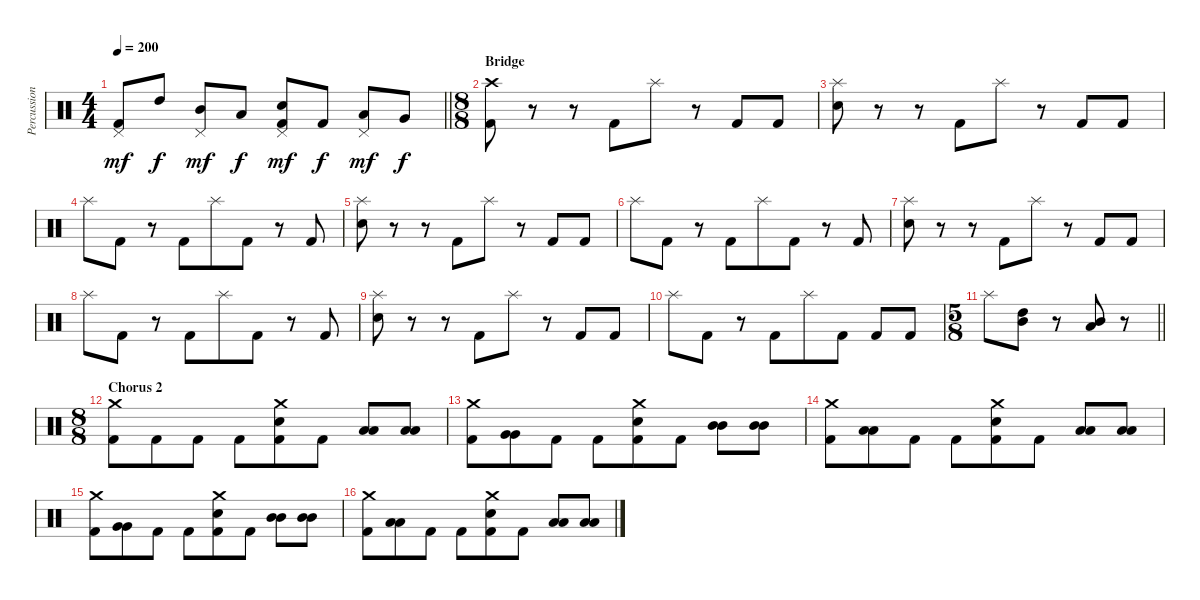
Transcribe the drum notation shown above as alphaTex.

\track ("Percussions" "Percussion") {instrument percussion}
\staff {score}
\articulation defaults
\ts (4 4)
\tempo 200
\clef neutral
\barLineRight lightlight
\ks c
("Pedal Hi-Hat (hit)" "Kick (hit) 2").8{dy mf} "High Tom (hit)".8{dy f} ("Pedal Hi-Hat (hit)" "Mid Tom (hit)").8{dy mf} "Low Tom (hit)".8{dy f} ("Pedal Hi-Hat (hit)" "Electric Snare (hit)" "Kick (hit) 2").8{dy mf} "Kick (hit) 2".8{dy f} ("Pedal Hi-Hat (hit)" "Low Tom (hit)").8{dy mf} "Very Low Tom (hit)".8{dy f} |
\ts (8 8)
\section ("" "Bridge")
("Crash high (hit)" "Kick (hit) 2").8 r.8 r.8 "Kick (hit) 2".8 "Splash (hit)".8 r.8 "Kick (hit) 2".8 "Kick (hit) 2".8 |
("Splash (hit)" "Electric Snare (hit)").8 r.8 r.8 "Kick (hit) 2".8 "Splash (hit)".8 r.8 "Kick (hit) 2".8 "Kick (hit) 2".8 |
"Splash (hit)".8 "Kick (hit) 2".8 r.8 "Kick (hit) 2".8 "Splash (hit)".8 "Kick (hit) 2".8 r.8 "Kick (hit) 2".8 |
("Splash (hit)" "Electric Snare (hit)").8 r.8 r.8 "Kick (hit) 2".8 "Splash (hit)".8 r.8 "Kick (hit) 2".8 "Kick (hit) 2".8 |
"Splash (hit)".8 "Kick (hit) 2".8 r.8 "Kick (hit) 2".8 "Splash (hit)".8 "Kick (hit) 2".8 r.8 "Kick (hit) 2".8 |
("Splash (hit)" "Electric Snare (hit)").8 r.8 r.8 "Kick (hit) 2".8 "Splash (hit)".8 r.8 "Kick (hit) 2".8 "Kick (hit) 2".8 |
"Splash (hit)".8 "Kick (hit) 2".8 r.8 "Kick (hit) 2".8 "Splash (hit)".8 "Kick (hit) 2".8 r.8 "Kick (hit) 2".8 |
("Splash (hit)" "Electric Snare (hit)").8 r.8 r.8 "Kick (hit) 2".8 "Splash (hit)".8 r.8 "Kick (hit) 2".8 "Kick (hit) 2".8 |
"Splash (hit)".8 "Kick (hit) 2".8 r.8 "Kick (hit) 2".8 "Splash (hit)".8 "Kick (hit) 2".8 "Kick (hit) 2".8 "Kick (hit) 2".8 |
\ts (5 8)
\barLineRight lightlight "Splash (hit)".8
("High Tom (hit)" "Mid Tom (hit)").8 r.8 ("Mid Tom (hit)" "Low Tom (hit)").8 r.8 |
\ts (8 8)
\section ("" "Chorus 2")
("Crash medium (hit)" "Kick (hit) 2").8 "Kick (hit) 2".8 "Kick (hit) 2".8 "Kick (hit) 2".8 ("Crash medium (hit)" "Electric Snare (hit)" "Kick (hit) 2").8 "Kick (hit) 2".8 ("Low Tom (hit)" "Low Tom (hit)").8 ("Low Tom (hit)" "Low Tom (hit)").8 |
("Crash medium (hit)" "Kick (hit) 2").8 ("Very Low Tom (hit)" "Very Low Tom (hit)").8 "Kick (hit) 2".8 "Kick (hit) 2".8 ("Crash medium (hit)" "Electric Snare (hit)" "Kick (hit) 2").8 "Kick (hit) 2".8 ("Mid Tom (hit)" "Mid Tom (hit)").8 ("Mid Tom (hit)" "Mid Tom (hit)").8 |
("Crash medium (hit)" "Kick (hit) 2").8 ("Low Tom (hit)" "Low Tom (hit)").8 "Kick (hit) 2".8 "Kick (hit) 2".8 ("Crash medium (hit)" "Electric Snare (hit)" "Kick (hit) 2").8 "Kick (hit) 2".8 ("Low Tom (hit)" "Low Tom (hit)").8 ("Low Tom (hit)" "Low Tom (hit)").8 |
("Crash medium (hit)" "Kick (hit) 2").8 ("Very Low Tom (hit)" "Very Low Tom (hit)").8 "Kick (hit) 2".8 "Kick (hit) 2".8 ("Crash medium (hit)" "Electric Snare (hit)" "Kick (hit) 2").8 "Kick (hit) 2".8 ("Mid Tom (hit)" "Mid Tom (hit)").8 ("Mid Tom (hit)" "Mid Tom (hit)").8 |
("Crash medium (hit)" "Kick (hit) 2").8 ("Low Tom (hit)" "Low Tom (hit)").8 "Kick (hit) 2".8 "Kick (hit) 2".8 ("Crash medium (hit)" "Electric Snare (hit)" "Kick (hit) 2").8 "Kick (hit) 2".8 ("Low Tom (hit)" "Low Tom (hit)").8 ("Low Tom (hit)" "Low Tom (hit)").8
